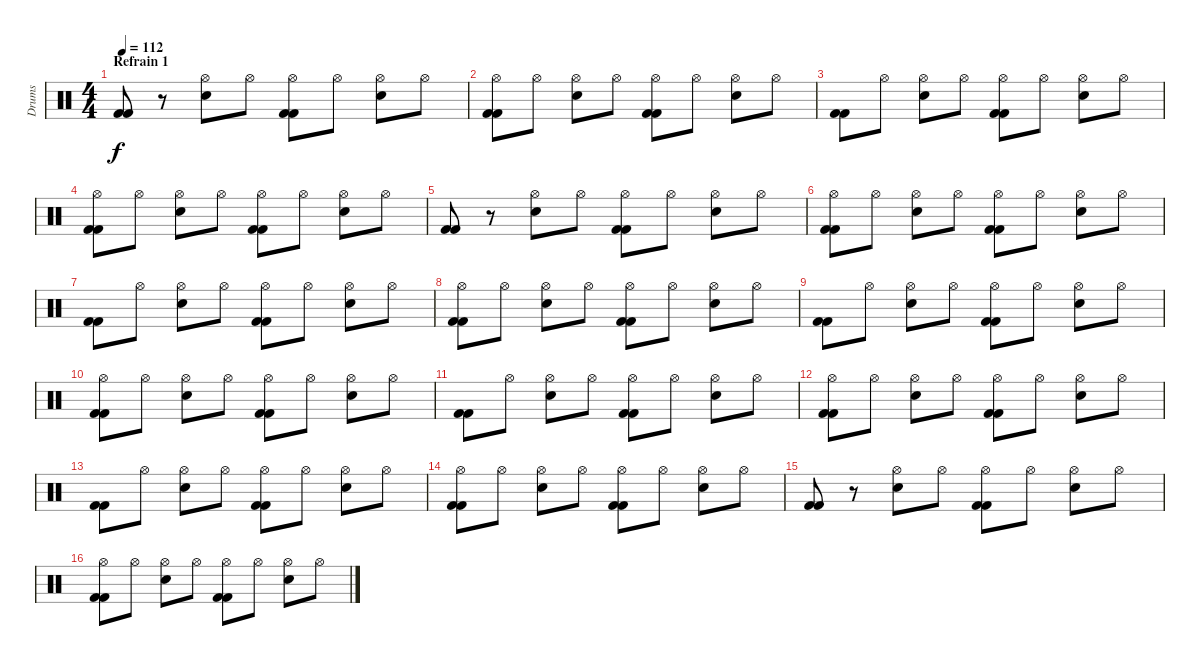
\track ("Drums" "Drums") {instrument percussion}
\staff {score}
\articulation defaults
\ts (4 4)
\section ("" "Refrain 1")
\tempo 112
\clef neutral
\ks c
("Kick (hit) 2" "Kick (hit) 2").8{dy f} r.8 ("Hi-Hat (open)" "Electric Snare (hit)").8 "Hi-Hat (open)".8 ("Hi-Hat (open)" "Kick (hit) 2" "Kick (hit) 2").8 "Hi-Hat (open)".8 ("Hi-Hat (open)" "Electric Snare (hit)").8 "Hi-Hat (open)".8 |
("Hi-Hat (open)" "Kick (hit) 2" "Kick (hit) 2").8 "Hi-Hat (open)".8 ("Hi-Hat (open)" "Electric Snare (hit)").8 "Hi-Hat (open)".8 ("Hi-Hat (open)" "Kick (hit) 2" "Kick (hit) 2").8 "Hi-Hat (open)".8 ("Hi-Hat (open)" "Electric Snare (hit)").8 "Hi-Hat (open)".8 |
("Kick (hit) 2" "Kick (hit) 2").8 "Hi-Hat (open)".8 ("Hi-Hat (open)" "Electric Snare (hit)").8 "Hi-Hat (open)".8 ("Hi-Hat (open)" "Kick (hit) 2" "Kick (hit) 2").8 "Hi-Hat (open)".8 ("Hi-Hat (open)" "Electric Snare (hit)").8 "Hi-Hat (open)".8 |
("Hi-Hat (open)" "Kick (hit) 2" "Kick (hit) 2").8 "Hi-Hat (open)".8 ("Hi-Hat (open)" "Electric Snare (hit)").8 "Hi-Hat (open)".8 ("Hi-Hat (open)" "Kick (hit) 2" "Kick (hit) 2").8 "Hi-Hat (open)".8 ("Hi-Hat (open)" "Electric Snare (hit)").8 "Hi-Hat (open)".8 |
("Kick (hit) 2" "Kick (hit) 2").8 r.8 ("Hi-Hat (open)" "Electric Snare (hit)").8 "Hi-Hat (open)".8 ("Hi-Hat (open)" "Kick (hit) 2" "Kick (hit) 2").8 "Hi-Hat (open)".8 ("Hi-Hat (open)" "Electric Snare (hit)").8 "Hi-Hat (open)".8 |
("Hi-Hat (open)" "Kick (hit) 2" "Kick (hit) 2").8 "Hi-Hat (open)".8 ("Hi-Hat (open)" "Electric Snare (hit)").8 "Hi-Hat (open)".8 ("Hi-Hat (open)" "Kick (hit) 2" "Kick (hit) 2").8 "Hi-Hat (open)".8 ("Hi-Hat (open)" "Electric Snare (hit)").8 "Hi-Hat (open)".8 |
("Kick (hit) 2" "Kick (hit) 2").8 "Hi-Hat (open)".8 ("Hi-Hat (open)" "Electric Snare (hit)").8 "Hi-Hat (open)".8 ("Hi-Hat (open)" "Kick (hit) 2" "Kick (hit) 2").8 "Hi-Hat (open)".8 ("Hi-Hat (open)" "Electric Snare (hit)").8 "Hi-Hat (open)".8 |
("Hi-Hat (open)" "Kick (hit) 2" "Kick (hit) 2").8 "Hi-Hat (open)".8 ("Hi-Hat (open)" "Electric Snare (hit)").8 "Hi-Hat (open)".8 ("Hi-Hat (open)" "Kick (hit) 2" "Kick (hit) 2").8 "Hi-Hat (open)".8 ("Hi-Hat (open)" "Electric Snare (hit)").8 "Hi-Hat (open)".8 |
("Kick (hit) 2" "Kick (hit) 2").8 "Hi-Hat (open)".8 ("Hi-Hat (open)" "Electric Snare (hit)").8 "Hi-Hat (open)".8 ("Hi-Hat (open)" "Kick (hit) 2" "Kick (hit) 2").8 "Hi-Hat (open)".8 ("Hi-Hat (open)" "Electric Snare (hit)").8 "Hi-Hat (open)".8 |
("Hi-Hat (open)" "Kick (hit) 2" "Kick (hit) 2").8 "Hi-Hat (open)".8 ("Hi-Hat (open)" "Electric Snare (hit)").8 "Hi-Hat (open)".8 ("Hi-Hat (open)" "Kick (hit) 2" "Kick (hit) 2").8 "Hi-Hat (open)".8 ("Hi-Hat (open)" "Electric Snare (hit)").8 "Hi-Hat (open)".8 |
("Kick (hit) 2" "Kick (hit) 2").8 "Hi-Hat (open)".8 ("Hi-Hat (open)" "Electric Snare (hit)").8 "Hi-Hat (open)".8 ("Hi-Hat (open)" "Kick (hit) 2" "Kick (hit) 2").8 "Hi-Hat (open)".8 ("Hi-Hat (open)" "Electric Snare (hit)").8 "Hi-Hat (open)".8 |
("Hi-Hat (open)" "Kick (hit) 2" "Kick (hit) 2").8 "Hi-Hat (open)".8 ("Hi-Hat (open)" "Electric Snare (hit)").8 "Hi-Hat (open)".8 ("Hi-Hat (open)" "Kick (hit) 2" "Kick (hit) 2").8 "Hi-Hat (open)".8 ("Hi-Hat (open)" "Electric Snare (hit)").8 "Hi-Hat (open)".8 |
("Kick (hit) 2" "Kick (hit) 2").8 "Hi-Hat (open)".8 ("Hi-Hat (open)" "Electric Snare (hit)").8 "Hi-Hat (open)".8 ("Hi-Hat (open)" "Kick (hit) 2" "Kick (hit) 2").8 "Hi-Hat (open)".8 ("Hi-Hat (open)" "Electric Snare (hit)").8 "Hi-Hat (open)".8 |
("Hi-Hat (open)" "Kick (hit) 2" "Kick (hit) 2").8 "Hi-Hat (open)".8 ("Hi-Hat (open)" "Electric Snare (hit)").8 "Hi-Hat (open)".8 ("Hi-Hat (open)" "Kick (hit) 2" "Kick (hit) 2").8 "Hi-Hat (open)".8 ("Hi-Hat (open)" "Electric Snare (hit)").8 "Hi-Hat (open)".8 |
("Kick (hit) 2" "Kick (hit) 2").8 r.8 ("Hi-Hat (open)" "Electric Snare (hit)").8 "Hi-Hat (open)".8 ("Hi-Hat (open)" "Kick (hit) 2" "Kick (hit) 2").8 "Hi-Hat (open)".8 ("Hi-Hat (open)" "Electric Snare (hit)").8 "Hi-Hat (open)".8 |
("Hi-Hat (open)" "Kick (hit) 2" "Kick (hit) 2").8 "Hi-Hat (open)".8 ("Hi-Hat (open)" "Electric Snare (hit)").8 "Hi-Hat (open)".8 ("Hi-Hat (open)" "Kick (hit) 2" "Kick (hit) 2").8 "Hi-Hat (open)".8 ("Hi-Hat (open)" "Electric Snare (hit)").8 "Hi-Hat (open)".8
